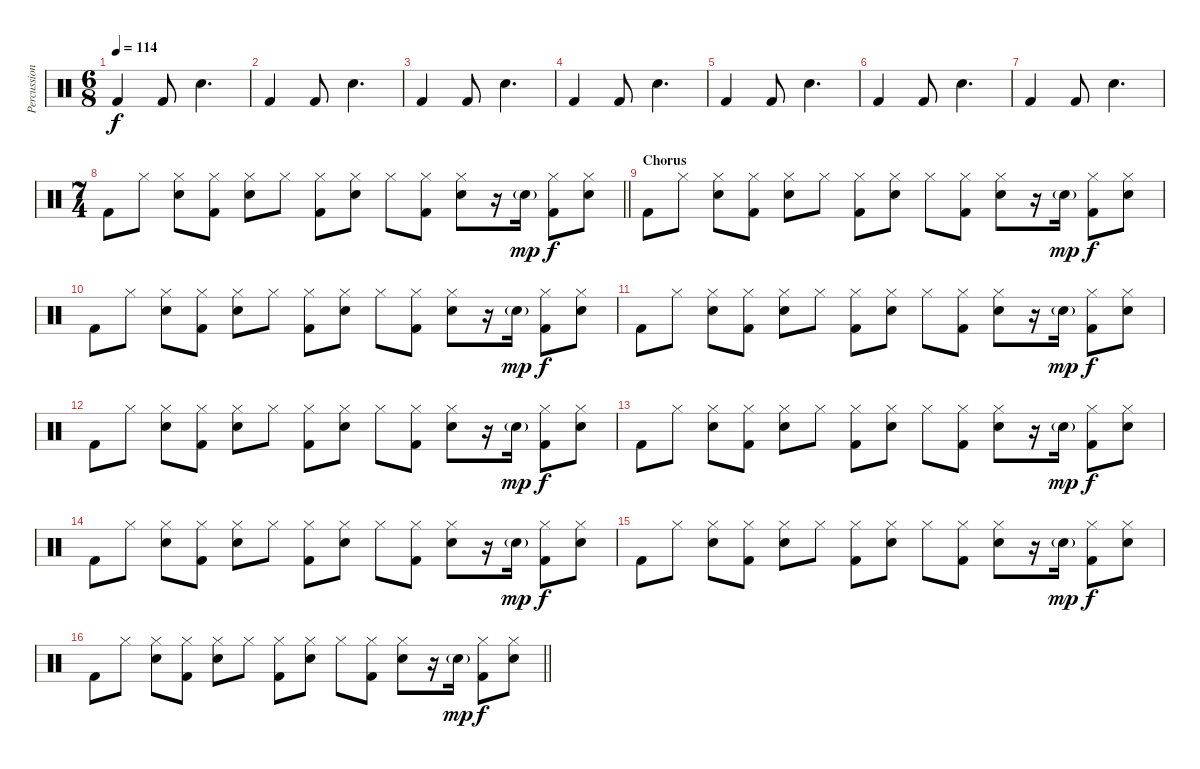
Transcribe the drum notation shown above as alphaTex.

\track ("Percussion" "Percussion") {instrument percussion}
\staff {score}
\articulation defaults
\ts (6 8)
\tempo 114
\clef neutral
\ks c "Kick (hit) 2".4{dy f} "Kick (hit) 2".8 "Snare (hit) 2".4{d}
|
"Kick (hit) 2".4 "Kick (hit) 2".8 "Snare (hit) 2".4{d} |
"Kick (hit) 2".4 "Kick (hit) 2".8 "Snare (hit) 2".4{d} |
"Kick (hit) 2".4 "Kick (hit) 2".8 "Snare (hit) 2".4{d} |
"Kick (hit) 2".4 "Kick (hit) 2".8 "Snare (hit) 2".4{d} |
"Kick (hit) 2".4 "Kick (hit) 2".8 "Snare (hit) 2".4{d} |
"Kick (hit) 2".4 "Kick (hit) 2".8 "Snare (hit) 2".4{d} |
\ts (7 4)
\barLineRight lightlight "Kick (hit) 2".8 "Hi-Hat (closed)".8
("Hi-Hat (closed)" "Snare (hit) 2").8 ("Hi-Hat (closed)" "Kick (hit) 2").8 ("Hi-Hat (closed)" "Snare (hit) 2").8 "Hi-Hat (closed)".8 ("Hi-Hat (closed)" "Kick (hit) 2").8 ("Hi-Hat (closed)" "Snare (hit) 2").8 "Hi-Hat (closed)".8 ("Hi-Hat (closed)" "Kick (hit) 2").8 ("Hi-Hat (closed)" "Snare (hit) 2").8 r.16 "Snare (hit) 2"{g}.16{dy mp} ("Hi-Hat (closed)" "Kick (hit) 2").8{dy f} ("Hi-Hat (closed)" "Snare (hit) 2").8 |
\section ("" "Chorus")
"Kick (hit) 2".8 "Hi-Hat (closed)".8 ("Hi-Hat (closed)" "Snare (hit) 2").8 ("Hi-Hat (closed)" "Kick (hit) 2").8 ("Hi-Hat (closed)" "Snare (hit) 2").8 "Hi-Hat (closed)".8 ("Hi-Hat (closed)" "Kick (hit) 2").8 ("Hi-Hat (closed)" "Snare (hit) 2").8 "Hi-Hat (closed)".8 ("Hi-Hat (closed)" "Kick (hit) 2").8 ("Hi-Hat (closed)" "Snare (hit) 2").8 r.16 "Snare (hit) 2"{g}.16{dy mp} ("Hi-Hat (closed)" "Kick (hit) 2").8{dy f} ("Hi-Hat (closed)" "Snare (hit) 2").8 |
"Kick (hit) 2".8 "Hi-Hat (closed)".8 ("Hi-Hat (closed)" "Snare (hit) 2").8 ("Hi-Hat (closed)" "Kick (hit) 2").8 ("Hi-Hat (closed)" "Snare (hit) 2").8 "Hi-Hat (closed)".8 ("Hi-Hat (closed)" "Kick (hit) 2").8 ("Hi-Hat (closed)" "Snare (hit) 2").8 "Hi-Hat (closed)".8 ("Hi-Hat (closed)" "Kick (hit) 2").8 ("Hi-Hat (closed)" "Snare (hit) 2").8 r.16 "Snare (hit) 2"{g}.16{dy mp} ("Hi-Hat (closed)" "Kick (hit) 2").8{dy f} ("Hi-Hat (closed)" "Snare (hit) 2").8 |
"Kick (hit) 2".8 "Hi-Hat (closed)".8 ("Hi-Hat (closed)" "Snare (hit) 2").8 ("Hi-Hat (closed)" "Kick (hit) 2").8 ("Hi-Hat (closed)" "Snare (hit) 2").8 "Hi-Hat (closed)".8 ("Hi-Hat (closed)" "Kick (hit) 2").8 ("Hi-Hat (closed)" "Snare (hit) 2").8 "Hi-Hat (closed)".8 ("Hi-Hat (closed)" "Kick (hit) 2").8 ("Hi-Hat (closed)" "Snare (hit) 2").8 r.16 "Snare (hit) 2"{g}.16{dy mp} ("Hi-Hat (closed)" "Kick (hit) 2").8{dy f} ("Hi-Hat (closed)" "Snare (hit) 2").8 |
"Kick (hit) 2".8 "Hi-Hat (closed)".8 ("Hi-Hat (closed)" "Snare (hit) 2").8 ("Hi-Hat (closed)" "Kick (hit) 2").8 ("Hi-Hat (closed)" "Snare (hit) 2").8 "Hi-Hat (closed)".8 ("Hi-Hat (closed)" "Kick (hit) 2").8 ("Hi-Hat (closed)" "Snare (hit) 2").8 "Hi-Hat (closed)".8 ("Hi-Hat (closed)" "Kick (hit) 2").8 ("Hi-Hat (closed)" "Snare (hit) 2").8 r.16 "Snare (hit) 2"{g}.16{dy mp} ("Hi-Hat (closed)" "Kick (hit) 2").8{dy f} ("Hi-Hat (closed)" "Snare (hit) 2").8 |
"Kick (hit) 2".8 "Hi-Hat (closed)".8 ("Hi-Hat (closed)" "Snare (hit) 2").8 ("Hi-Hat (closed)" "Kick (hit) 2").8 ("Hi-Hat (closed)" "Snare (hit) 2").8 "Hi-Hat (closed)".8 ("Hi-Hat (closed)" "Kick (hit) 2").8 ("Hi-Hat (closed)" "Snare (hit) 2").8 "Hi-Hat (closed)".8 ("Hi-Hat (closed)" "Kick (hit) 2").8 ("Hi-Hat (closed)" "Snare (hit) 2").8 r.16 "Snare (hit) 2"{g}.16{dy mp} ("Hi-Hat (closed)" "Kick (hit) 2").8{dy f} ("Hi-Hat (closed)" "Snare (hit) 2").8 |
"Kick (hit) 2".8 "Hi-Hat (closed)".8 ("Hi-Hat (closed)" "Snare (hit) 2").8 ("Hi-Hat (closed)" "Kick (hit) 2").8 ("Hi-Hat (closed)" "Snare (hit) 2").8 "Hi-Hat (closed)".8 ("Hi-Hat (closed)" "Kick (hit) 2").8 ("Hi-Hat (closed)" "Snare (hit) 2").8 "Hi-Hat (closed)".8 ("Hi-Hat (closed)" "Kick (hit) 2").8 ("Hi-Hat (closed)" "Snare (hit) 2").8 r.16 "Snare (hit) 2"{g}.16{dy mp} ("Hi-Hat (closed)" "Kick (hit) 2").8{dy f} ("Hi-Hat (closed)" "Snare (hit) 2").8 |
"Kick (hit) 2".8 "Hi-Hat (closed)".8 ("Hi-Hat (closed)" "Snare (hit) 2").8 ("Hi-Hat (closed)" "Kick (hit) 2").8 ("Hi-Hat (closed)" "Snare (hit) 2").8 "Hi-Hat (closed)".8 ("Hi-Hat (closed)" "Kick (hit) 2").8 ("Hi-Hat (closed)" "Snare (hit) 2").8 "Hi-Hat (closed)".8 ("Hi-Hat (closed)" "Kick (hit) 2").8 ("Hi-Hat (closed)" "Snare (hit) 2").8 r.16 "Snare (hit) 2"{g}.16{dy mp} ("Hi-Hat (closed)" "Kick (hit) 2").8{dy f} ("Hi-Hat (closed)" "Snare (hit) 2").8 |
\barLineRight lightlight "Kick (hit) 2".8 "Hi-Hat (closed)".8
("Hi-Hat (closed)" "Snare (hit) 2").8 ("Hi-Hat (closed)" "Kick (hit) 2").8 ("Hi-Hat (closed)" "Snare (hit) 2").8 "Hi-Hat (closed)".8 ("Hi-Hat (closed)" "Kick (hit) 2").8 ("Hi-Hat (closed)" "Snare (hit) 2").8 "Hi-Hat (closed)".8 ("Hi-Hat (closed)" "Kick (hit) 2").8 ("Hi-Hat (closed)" "Snare (hit) 2").8 r.16 "Snare (hit) 2"{g}.16{dy mp} ("Hi-Hat (closed)" "Kick (hit) 2").8{dy f} ("Hi-Hat (closed)" "Snare (hit) 2").8
